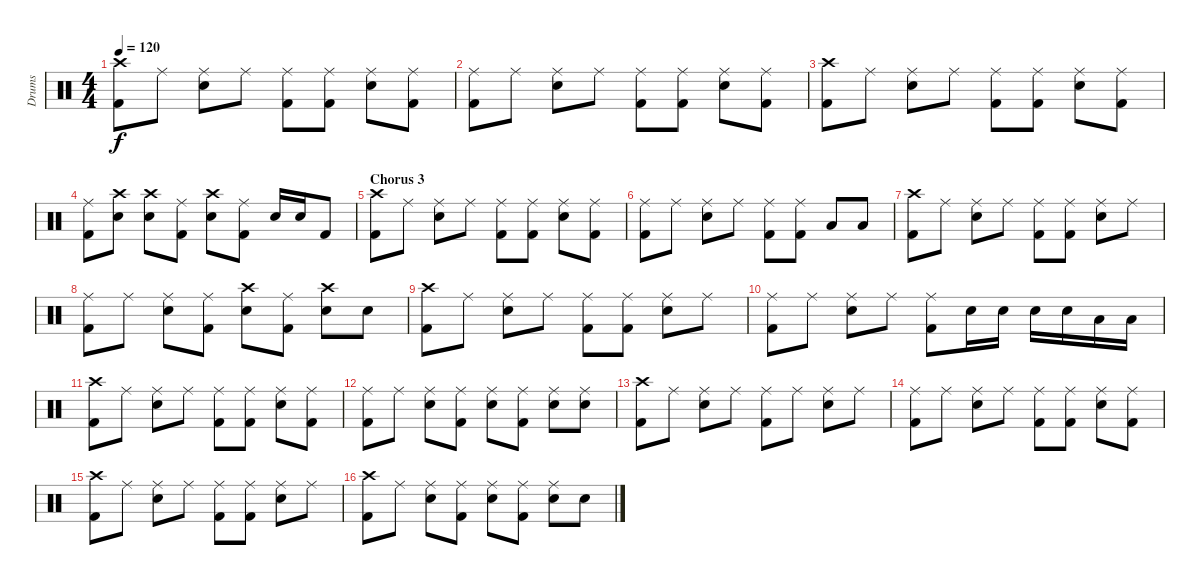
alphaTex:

\track ("Drums" "Drums") {instrument percussion}
\staff {score}
\articulation defaults
\ts (4 4)
\tempo 120
\clef neutral
\ks c
("Crash high (hit)" "Kick (hit) 2").8{dy f} "Ride (middle)".8 ("Ride (middle)" "Electric Snare (hit)").8 "Ride (middle)".8 ("Ride (middle)" "Kick (hit) 2").8 ("Ride (middle)" "Kick (hit) 2").8 ("Ride (middle)" "Electric Snare (hit)").8 ("Ride (middle)" "Kick (hit) 2").8 |
("Ride (middle)" "Kick (hit) 2").8 "Ride (middle)".8 ("Ride (middle)" "Electric Snare (hit)").8 "Ride (middle)".8 ("Ride (middle)" "Kick (hit) 2").8 ("Ride (middle)" "Kick (hit) 2").8 ("Ride (middle)" "Electric Snare (hit)").8 ("Ride (middle)" "Kick (hit) 2").8 |
("Crash high (hit)" "Kick (hit) 2").8 "Ride (middle)".8 ("Ride (middle)" "Electric Snare (hit)").8 "Ride (middle)".8 ("Ride (middle)" "Kick (hit) 2").8 ("Ride (middle)" "Kick (hit) 2").8 ("Ride (middle)" "Electric Snare (hit)").8 ("Ride (middle)" "Kick (hit) 2").8 |
("Ride (middle)" "Kick (hit) 2").8 ("Crash high (hit)" "Electric Snare (hit)").8 ("Crash high (hit)" "Electric Snare (hit)").8 ("Ride (middle)" "Kick (hit) 2").8 ("Crash high (hit)" "Electric Snare (hit)").8 ("Ride (middle)" "Kick (hit) 2").8 "Electric Snare (hit)".16 "Electric Snare (hit)".16 "Kick (hit) 2".8 |
\section ("" "Chorus 3")
("Crash high (hit)" "Kick (hit) 2").8 "Ride (middle)".8 ("Ride (middle)" "Electric Snare (hit)").8 "Ride (middle)".8 ("Ride (middle)" "Kick (hit) 2").8 ("Ride (middle)" "Kick (hit) 2").8 ("Ride (middle)" "Electric Snare (hit)").8 ("Ride (middle)" "Kick (hit) 2").8 |
("Ride (middle)" "Kick (hit) 2").8 "Ride (middle)".8 ("Ride (middle)" "Electric Snare (hit)").8 "Ride (middle)".8 ("Ride (middle)" "Kick (hit) 2").8 ("Ride (middle)" "Kick (hit) 2").8 "Low Floor Tom (hit)".8 "Low Floor Tom (hit)".8 |
("Crash high (hit)" "Kick (hit) 2").8 "Ride (middle)".8 ("Ride (middle)" "Electric Snare (hit)").8 "Ride (middle)".8 ("Ride (middle)" "Kick (hit) 2").8 ("Ride (middle)" "Kick (hit) 2").8 ("Ride (middle)" "Electric Snare (hit)").8 "Ride (middle)".8 |
("Ride (middle)" "Kick (hit) 2").8 "Ride (middle)".8 ("Ride (middle)" "Electric Snare (hit)").8 ("Ride (middle)" "Kick (hit) 2").8 ("Crash high (hit)" "Electric Snare (hit)").8 ("Ride (middle)" "Kick (hit) 2").8 ("Crash high (hit)" "Electric Snare (hit)").8 "Electric Snare (hit)".8 |
("Crash high (hit)" "Kick (hit) 2").8 "Ride (middle)".8 ("Ride (middle)" "Electric Snare (hit)").8 "Ride (middle)".8 ("Ride (middle)" "Kick (hit) 2").8 ("Ride (middle)" "Kick (hit) 2").8 ("Ride (middle)" "Electric Snare (hit)").8 "Ride (middle)".8 |
("Ride (middle)" "Kick (hit) 2").8 "Ride (middle)".8 ("Ride (middle)" "Electric Snare (hit)").8 "Ride (middle)".8 ("Ride (middle)" "Kick (hit) 2").8 "Electric Snare (hit)".16 "Electric Snare (hit)".16 "Electric Snare (hit)".16 "Electric Snare (hit)".16 "Low Tom (hit)".16 "Low Tom (hit)".16 |
("Crash high (hit)" "Kick (hit) 2").8 "Ride (middle)".8 ("Ride (middle)" "Electric Snare (hit)").8 "Ride (middle)".8 ("Ride (middle)" "Kick (hit) 2").8 ("Ride (middle)" "Kick (hit) 2").8 ("Ride (middle)" "Electric Snare (hit)").8 ("Ride (middle)" "Kick (hit) 2").8 |
("Ride (middle)" "Kick (hit) 2").8 "Ride (middle)".8 ("Ride (middle)" "Electric Snare (hit)").8 ("Ride (middle)" "Kick (hit) 2").8 ("Ride (middle)" "Electric Snare (hit)").8 ("Ride (middle)" "Kick (hit) 2").8 ("Ride (middle)" "Electric Snare (hit)").8 ("Ride (middle)" "Electric Snare (hit)").8 |
("Crash high (hit)" "Kick (hit) 2").8 "Ride (middle)".8 ("Ride (middle)" "Electric Snare (hit)").8 "Ride (middle)".8 ("Ride (middle)" "Kick (hit) 2").8 "Ride (middle)".8 ("Ride (middle)" "Electric Snare (hit)").8 "Ride (middle)".8 |
("Ride (middle)" "Kick (hit) 2").8 "Ride (middle)".8 ("Ride (middle)" "Electric Snare (hit)").8 "Ride (middle)".8 ("Ride (middle)" "Kick (hit) 2").8 ("Ride (middle)" "Kick (hit) 2").8 ("Ride (middle)" "Electric Snare (hit)").8 ("Ride (middle)" "Kick (hit) 2").8 |
("Crash high (hit)" "Kick (hit) 2").8 "Ride (middle)".8 ("Ride (middle)" "Electric Snare (hit)").8 "Ride (middle)".8 ("Ride (middle)" "Kick (hit) 2").8 ("Ride (middle)" "Kick (hit) 2").8 ("Ride (middle)" "Electric Snare (hit)").8 "Ride (middle)".8 |
("Crash high (hit)" "Kick (hit) 2").8 "Ride (middle)".8 ("Ride (middle)" "Electric Snare (hit)").8 ("Ride (middle)" "Kick (hit) 2").8 ("Ride (middle)" "Electric Snare (hit)").8 ("Ride (middle)" "Kick (hit) 2").8 ("Ride (middle)" "Electric Snare (hit)").8 "Electric Snare (hit)".8
